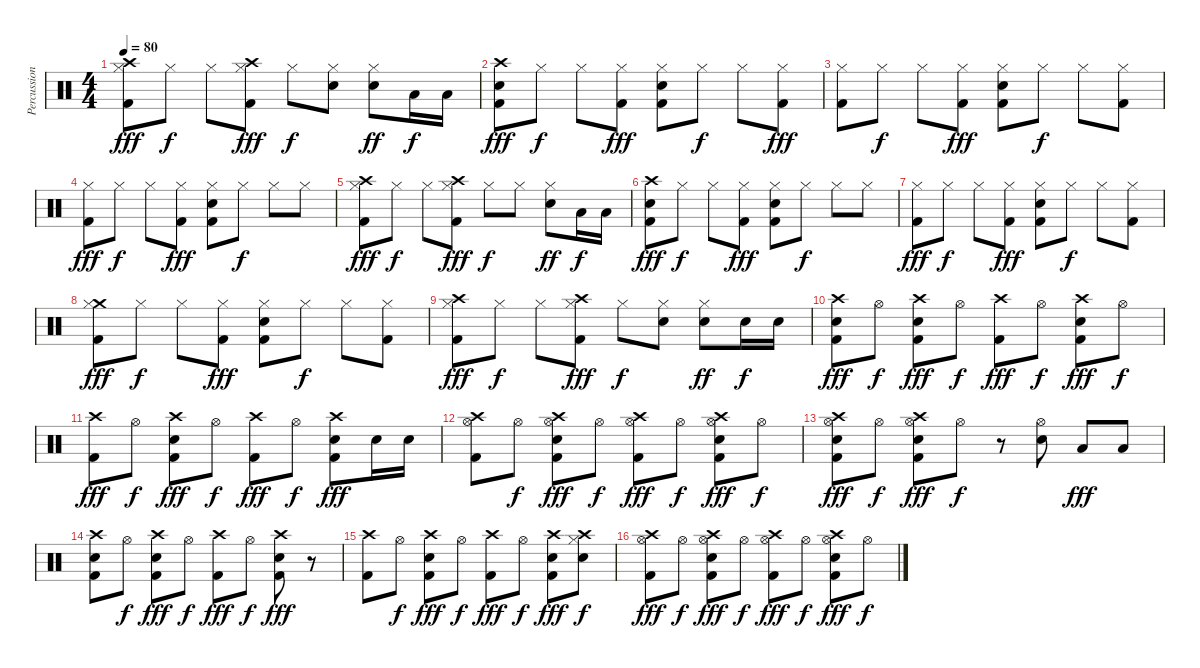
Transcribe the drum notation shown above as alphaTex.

\track ("Percussion" "Percussion") {instrument percussion}
\staff {score}
\articulation defaults
\ts (4 4)
\tempo 80
\clef neutral
\ks c
("Crash high (hit)" "Kick (hit) 2" "Hi-Hat (closed)").8{dy fff} "Hi-Hat (closed)".8{dy f} "Hi-Hat (closed)".8 ("Crash high (hit)" "Kick (hit) 2" "Hi-Hat (closed)").8{dy fff} "Hi-Hat (closed)".8{dy f} ("Snare (hit) 2" "Hi-Hat (closed)").8 ("Snare (hit) 2" "Hi-Hat (closed)").8{dy ff} "Low Tom (hit)".16{dy f} "Low Floor Tom (hit)".16 |
("Crash high (hit)" "Snare (hit) 2" "Kick (hit) 2").8{dy fff} "Hi-Hat (closed)".8{dy f} "Hi-Hat (closed)".8 ("Kick (hit) 2" "Hi-Hat (closed)").8{dy fff} ("Snare (hit) 2" "Kick (hit) 2" "Hi-Hat (closed)").8 "Hi-Hat (closed)".8{dy f} "Hi-Hat (closed)".8 ("Kick (hit) 2" "Hi-Hat (closed)").8{dy fff} |
("Kick (hit) 2" "Hi-Hat (closed)").8 "Hi-Hat (closed)".8{dy f} "Hi-Hat (closed)".8 ("Kick (hit) 2" "Hi-Hat (closed)").8{dy fff} ("Snare (hit) 2" "Kick (hit) 2" "Hi-Hat (closed)").8 "Hi-Hat (closed)".8{dy f} "Hi-Hat (closed)".8 ("Kick (hit) 2" "Hi-Hat (closed)").8 |
("Kick (hit) 2" "Hi-Hat (closed)").8{dy fff} "Hi-Hat (closed)".8{dy f} "Hi-Hat (closed)".8 ("Kick (hit) 2" "Hi-Hat (closed)").8{dy fff} ("Snare (hit) 2" "Kick (hit) 2" "Hi-Hat (closed)").8 "Hi-Hat (closed)".8{dy f} "Hi-Hat (closed)".8 "Hi-Hat (closed)".8 |
("Crash high (hit)" "Kick (hit) 2" "Hi-Hat (closed)").8{dy fff} "Hi-Hat (closed)".8{dy f} "Hi-Hat (closed)".8 ("Crash high (hit)" "Kick (hit) 2" "Hi-Hat (closed)").8{dy fff} "Hi-Hat (closed)".8{dy f} "Hi-Hat (closed)".8 ("Snare (hit) 2" "Hi-Hat (closed)").8{dy ff} "Low Tom (hit)".16{dy f} "Low Floor Tom (hit)".16 |
("Crash high (hit)" "Snare (hit) 2" "Kick (hit) 2").8{dy fff} "Hi-Hat (closed)".8{dy f} "Hi-Hat (closed)".8 ("Kick (hit) 2" "Hi-Hat (closed)").8{dy fff} ("Snare (hit) 2" "Kick (hit) 2" "Hi-Hat (closed)").8 "Hi-Hat (closed)".8{dy f} "Hi-Hat (closed)".8 "Hi-Hat (closed)".8 |
("Kick (hit) 2" "Hi-Hat (closed)").8{dy fff} "Hi-Hat (closed)".8{dy f} "Hi-Hat (closed)".8 ("Kick (hit) 2" "Hi-Hat (closed)").8{dy fff} ("Snare (hit) 2" "Kick (hit) 2" "Hi-Hat (closed)").8 "Hi-Hat (closed)".8{dy f} "Hi-Hat (closed)".8 ("Kick (hit) 2" "Hi-Hat (closed)").8 |
("Crash medium (hit)" "Kick (hit) 2" "Hi-Hat (closed)").8{dy fff} "Hi-Hat (closed)".8{dy f} "Hi-Hat (closed)".8 ("Kick (hit) 2" "Hi-Hat (closed)").8{dy fff} ("Snare (hit) 2" "Kick (hit) 2" "Hi-Hat (closed)").8 "Hi-Hat (closed)".8{dy f} "Hi-Hat (closed)".8 ("Kick (hit) 2" "Hi-Hat (closed)").8 |
("Crash high (hit)" "Kick (hit) 2" "Hi-Hat (closed)").8{dy fff} "Hi-Hat (closed)".8{dy f} "Hi-Hat (closed)".8 ("Crash high (hit)" "Kick (hit) 2" "Hi-Hat (closed)").8{dy fff} "Hi-Hat (closed)".8{dy f} ("Snare (hit) 2" "Hi-Hat (closed)").8 ("Snare (hit) 2" "Hi-Hat (closed)").8{dy ff} "Snare (hit) 2".16{dy f} "Snare (hit) 2".16 |
("Crash high (hit)" "Snare (hit) 2" "Kick (hit) 2").8{dy fff} "Hi-Hat (open)".8{dy f} ("Crash high (hit)" "Snare (hit) 2" "Kick (hit) 2").8{dy fff} "Hi-Hat (open)".8{dy f} ("Crash high (hit)" "Kick (hit) 2").8{dy fff} "Hi-Hat (open)".8{dy f} ("Crash high (hit)" "Snare (hit) 2" "Kick (hit) 2").8{dy fff} "Hi-Hat (open)".8{dy f} |
("Crash high (hit)" "Kick (hit) 2").8{dy fff} "Hi-Hat (open)".8{dy f} ("Crash high (hit)" "Snare (hit) 2" "Kick (hit) 2").8{dy fff} "Hi-Hat (open)".8{dy f} ("Crash high (hit)" "Kick (hit) 2").8{dy fff} "Hi-Hat (open)".8{dy f} ("Crash high (hit)" "Snare (hit) 2" "Kick (hit) 2").8{dy fff} "Snare (hit) 2".16 "Snare (hit) 2".16 |
("Crash high (hit)" "Kick (hit) 2" "Hi-Hat (open)").8 "Hi-Hat (open)".8{dy f} ("Crash high (hit)" "Snare (hit) 2" "Kick (hit) 2" "Hi-Hat (open)").8{dy fff} "Hi-Hat (open)".8{dy f} ("Crash high (hit)" "Kick (hit) 2" "Hi-Hat (open)").8{dy fff} "Hi-Hat (open)".8{dy f} ("Crash high (hit)" "Snare (hit) 2" "Kick (hit) 2" "Hi-Hat (open)").8{dy fff} "Hi-Hat (open)".8{dy f} |
("Crash high (hit)" "Snare (hit) 2" "Kick (hit) 2" "Hi-Hat (open)").8{dy fff} "Hi-Hat (open)".8{dy f} ("Crash high (hit)" "Snare (hit) 2" "Kick (hit) 2" "Hi-Hat (open)").8{dy fff} "Hi-Hat (open)".8{dy f} r.8 ("Snare (hit) 2" "Hi-Hat (open)").8 "Low Tom (hit)".8{dy fff} "Low Floor Tom (hit)".8 |
("Crash high (hit)" "Snare (hit) 2" "Kick (hit) 2").8 "Hi-Hat (open)".8{dy f} ("Crash high (hit)" "Snare (hit) 2" "Kick (hit) 2").8{dy fff} "Hi-Hat (open)".8{dy f} ("Crash high (hit)" "Kick (hit) 2").8{dy fff} "Hi-Hat (open)".8{dy f} ("Crash high (hit)" "Snare (hit) 2" "Kick (hit) 2").8{dy fff} r.8 |
("Crash high (hit)" "Kick (hit) 2").8 "Hi-Hat (open)".8{dy f} ("Crash high (hit)" "Snare (hit) 2" "Kick (hit) 2").8{dy fff} "Hi-Hat (open)".8{dy f} ("Crash high (hit)" "Kick (hit) 2").8{dy fff} "Hi-Hat (open)".8{dy f} ("Crash high (hit)" "Snare (hit) 2" "Kick (hit) 2").8{dy fff} ("Crash high (hit)" "Snare (hit) 2" "Hi-Hat (closed)").8{dy f} |
("Crash high (hit)" "Kick (hit) 2" "Hi-Hat (open)").8{dy fff} "Hi-Hat (open)".8{dy f} ("Crash high (hit)" "Snare (hit) 2" "Kick (hit) 2" "Hi-Hat (open)").8{dy fff} "Hi-Hat (open)".8{dy f} ("Crash high (hit)" "Kick (hit) 2" "Hi-Hat (open)").8{dy fff} "Hi-Hat (open)".8{dy f} ("Crash high (hit)" "Snare (hit) 2" "Kick (hit) 2" "Hi-Hat (open)").8{dy fff} "Hi-Hat (open)".8{dy f}
